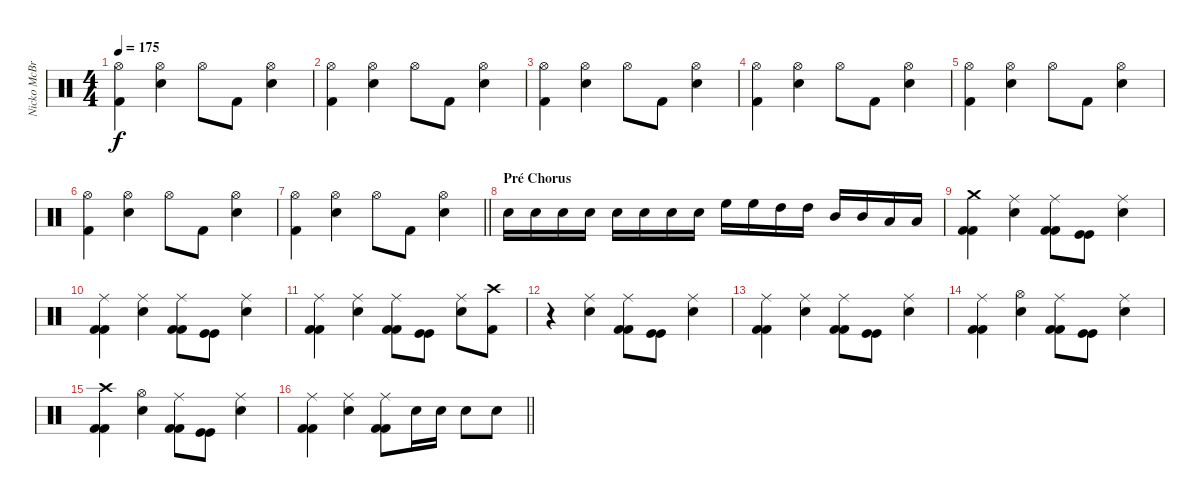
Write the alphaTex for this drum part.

\track ("Nicko McBrian" "Nicko McBr") {instrument percussion}
\staff {score}
\articulation defaults
\ts (4 4)
\tempo 175
\clef neutral
\ks c
("Hi-Hat (open)" "Kick (hit) 2").4{dy f} ("Hi-Hat (open)" "Snare (hit) 2").4 "Hi-Hat (open)".8 "Kick (hit) 2".8 ("Hi-Hat (open)" "Snare (hit) 2").4 |
("Hi-Hat (open)" "Kick (hit) 2").4 ("Hi-Hat (open)" "Snare (hit) 2").4 "Hi-Hat (open)".8 "Kick (hit) 2".8 ("Hi-Hat (open)" "Snare (hit) 2").4 |
("Hi-Hat (open)" "Kick (hit) 2").4 ("Hi-Hat (open)" "Snare (hit) 2").4 "Hi-Hat (open)".8 "Kick (hit) 2".8 ("Hi-Hat (open)" "Snare (hit) 2").4 |
("Hi-Hat (open)" "Kick (hit) 2").4 ("Hi-Hat (open)" "Snare (hit) 2").4 "Hi-Hat (open)".8 "Kick (hit) 2".8 ("Hi-Hat (open)" "Snare (hit) 2").4 |
("Hi-Hat (open)" "Kick (hit) 2").4 ("Hi-Hat (open)" "Snare (hit) 2").4 "Hi-Hat (open)".8 "Kick (hit) 2".8 ("Hi-Hat (open)" "Snare (hit) 2").4 |
("Hi-Hat (open)" "Kick (hit) 2").4 ("Hi-Hat (open)" "Snare (hit) 2").4 "Hi-Hat (open)".8 "Kick (hit) 2".8 ("Hi-Hat (open)" "Snare (hit) 2").4 |
\barLineRight lightlight
("Hi-Hat (open)" "Kick (hit) 2").4 ("Hi-Hat (open)" "Snare (hit) 2").4 "Hi-Hat (open)".8 "Kick (hit) 2".8 ("Hi-Hat (open)" "Snare (hit) 2").4 |
\section ("" "Pré Chorus")
"Snare (hit) 2".16 "Snare (hit) 2".16 "Snare (hit) 2".16 "Snare (hit) 2".16 "Snare (hit) 2".16 "Snare (hit) 2".16 "Snare (hit) 2".16 "Snare (hit) 2".16 "High Floor Tom (hit)".16 "High Floor Tom (hit)".16 "High Tom (hit)".16 "High Tom (hit)".16 "Mid Tom (hit)".16 "Mid Tom (hit)".16 "Low Tom (hit)".16 "Low Tom (hit)".16 |
("Crash medium (hit)" "Kick (hit) 2" "Kick (hit) 2").4 ("Ride (middle)" "Snare (hit) 2").4 ("Ride (middle)" "Kick (hit) 2" "Kick (hit) 2").8 ("Kick (hit)" "Kick (hit)").8 ("Ride (middle)" "Snare (hit) 2").4 |
("Ride (middle)" "Kick (hit) 2" "Kick (hit) 2").4 ("Ride (middle)" "Snare (hit) 2").4 ("Ride (middle)" "Kick (hit) 2" "Kick (hit) 2").8 ("Kick (hit)" "Kick (hit)").8 ("Ride (middle)" "Snare (hit) 2").4 |
("Ride (middle)" "Kick (hit) 2" "Kick (hit) 2").4 ("Ride (middle)" "Snare (hit) 2").4 ("Ride (middle)" "Kick (hit) 2" "Kick (hit) 2").8 ("Kick (hit)" "Kick (hit)").8 ("Ride (middle)" "Snare (hit) 2").8 ("Crash high (hit)" "Kick (hit) 2").8 |
r.4 ("Ride (middle)" "Snare (hit) 2").4 ("Ride (middle)" "Kick (hit) 2" "Kick (hit) 2").8 ("Kick (hit)" "Kick (hit)").8 ("Ride (middle)" "Snare (hit) 2").4 |
("Ride (middle)" "Kick (hit) 2" "Kick (hit) 2").4 ("Ride (middle)" "Snare (hit) 2").4 ("Ride (middle)" "Kick (hit) 2" "Kick (hit) 2").8 ("Kick (hit)" "Kick (hit)").8 ("Ride (middle)" "Snare (hit) 2").4 |
("Ride (middle)" "Kick (hit) 2" "Kick (hit) 2").4 ("Hi-Hat (open)" "Snare (hit) 2").4 ("Ride (middle)" "Kick (hit) 2" "Kick (hit) 2").8 ("Kick (hit)" "Kick (hit)").8 ("Ride (middle)" "Snare (hit) 2").4 |
("Crash high (hit)" "Kick (hit) 2" "Kick (hit) 2").4 ("Hi-Hat (open)" "Snare (hit) 2").4 ("Ride (middle)" "Kick (hit) 2" "Kick (hit) 2").8 ("Kick (hit)" "Kick (hit)").8 ("Ride (middle)" "Snare (hit) 2").4 |
\barLineRight lightlight
("Ride (middle)" "Kick (hit) 2" "Kick (hit) 2").4 ("Ride (middle)" "Snare (hit) 2").4 ("Ride (middle)" "Kick (hit) 2" "Kick (hit) 2").8 "Snare (hit) 2".16 "Snare (hit) 2".16 "Snare (hit) 2".8 "Snare (hit) 2".8
